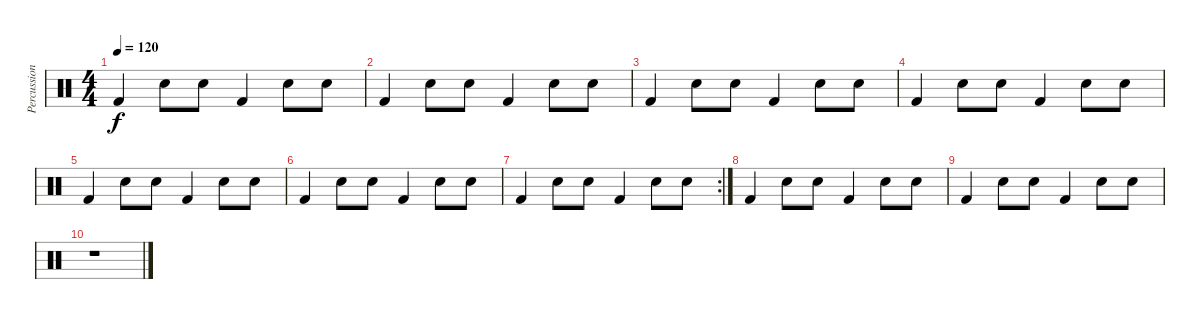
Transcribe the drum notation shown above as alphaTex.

\track ("Percussion" "Percussion") {instrument percussion}
\staff {score}
\articulation defaults
\ts (4 4)
\tempo 120
\clef neutral
\ks c "Kick (hit) 2".4{dy f} "Snare (hit) 2".8 "Snare (hit) 2".8 "Kick (hit) 2".4 "Snare (hit) 2".8 "Snare (hit) 2".8
|
"Kick (hit) 2".4 "Snare (hit) 2".8 "Snare (hit) 2".8 "Kick (hit) 2".4 "Snare (hit) 2".8 "Snare (hit) 2".8 |
"Kick (hit) 2".4 "Snare (hit) 2".8 "Snare (hit) 2".8 "Kick (hit) 2".4 "Snare (hit) 2".8 "Snare (hit) 2".8 |
"Kick (hit) 2".4 "Snare (hit) 2".8 "Snare (hit) 2".8 "Kick (hit) 2".4 "Snare (hit) 2".8 "Snare (hit) 2".8 |
"Kick (hit) 2".4 "Snare (hit) 2".8 "Snare (hit) 2".8 "Kick (hit) 2".4 "Snare (hit) 2".8 "Snare (hit) 2".8 |
"Kick (hit) 2".4 "Snare (hit) 2".8 "Snare (hit) 2".8 "Kick (hit) 2".4 "Snare (hit) 2".8 "Snare (hit) 2".8 |
\rc 2 "Kick (hit) 2".4 "Snare (hit) 2".8 "Snare (hit) 2".8 "Kick (hit) 2".4 "Snare (hit) 2".8 "Snare (hit) 2".8
|
"Kick (hit) 2".4 "Snare (hit) 2".8 "Snare (hit) 2".8 "Kick (hit) 2".4 "Snare (hit) 2".8 "Snare (hit) 2".8 |
"Kick (hit) 2".4 "Snare (hit) 2".8 "Snare (hit) 2".8 "Kick (hit) 2".4 "Snare (hit) 2".8 "Snare (hit) 2".8 |
r.1
